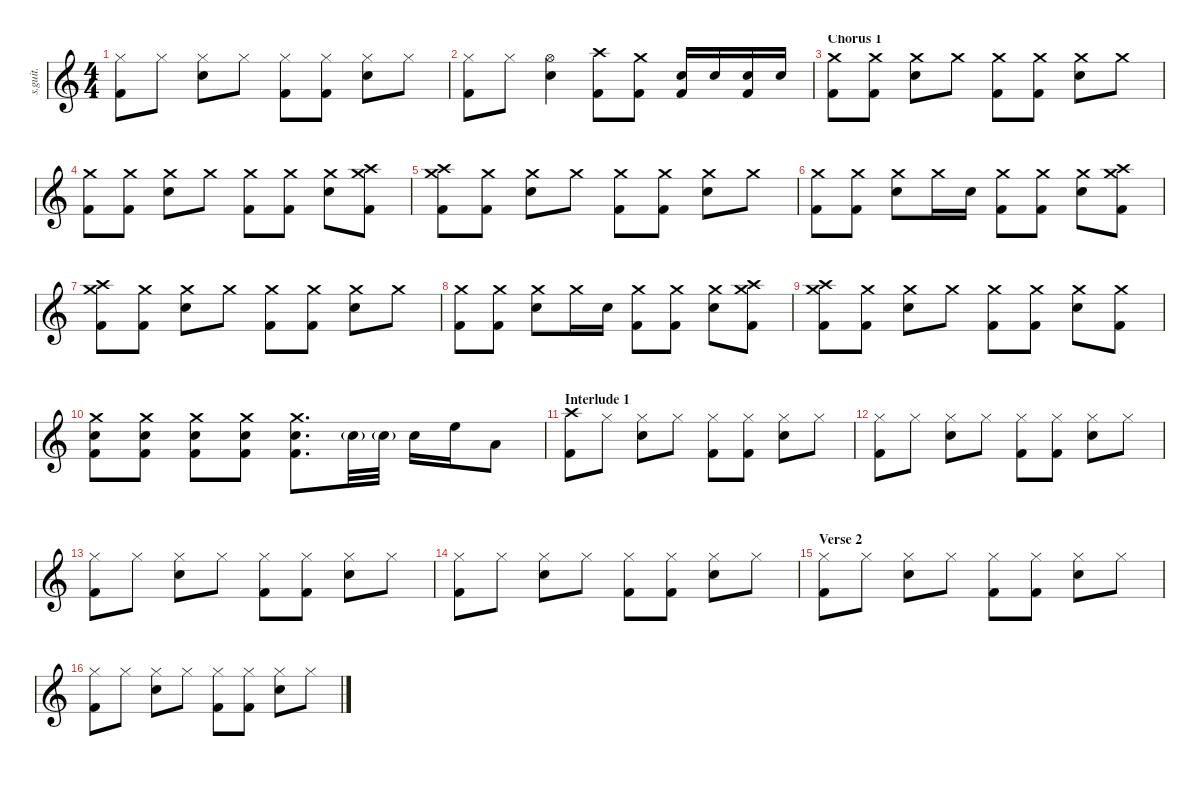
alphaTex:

\defaultSystemsLayout 4
\hideDynamics
\bracketExtendMode nobrackets
\track ("Tre Cool" "s.guit.") {instrument percussion}
\staff {score}
\articulation defaults
\ts (4 4)
\tempo (84 hide)
\clef g2
\ks c
("Hi-Hat (closed)" "Kick (hit) 2").8{lyrics (0 "") lyrics (1 "") lyrics (2 "") lyrics (3 "") lyrics (4 "") dy f} "Hi-Hat (closed)".8{lyrics (0 "") lyrics (1 "") lyrics (2 "") lyrics (3 "") lyrics (4 "")} ("Hi-Hat (closed)" "Snare (hit) 2").8{lyrics (0 "") lyrics (1 "") lyrics (2 "") lyrics (3 "") lyrics (4 "")} "Hi-Hat (closed)".8{lyrics (0 "") lyrics (1 "") lyrics (2 "") lyrics (3 "") lyrics (4 "")} ("Hi-Hat (closed)" "Kick (hit) 2").8{lyrics (0 "") lyrics (1 "") lyrics (2 "") lyrics (3 "") lyrics (4 "")} ("Hi-Hat (closed)" "Kick (hit) 2").8{lyrics (0 "") lyrics (1 "") lyrics (2 "") lyrics (3 "") lyrics (4 "")} ("Hi-Hat (closed)" "Snare (hit) 2").8{lyrics (0 "") lyrics (1 "") lyrics (2 "") lyrics (3 "") lyrics (4 "")} "Hi-Hat (closed)".8{lyrics (0 "") lyrics (1 "") lyrics (2 "") lyrics (3 "") lyrics (4 "")} |
("Hi-Hat (closed)" "Kick (hit) 2").8{lyrics (0 "") lyrics (1 "") lyrics (2 "") lyrics (3 "") lyrics (4 "")} "Hi-Hat (closed)".8{lyrics (0 "") lyrics (1 "") lyrics (2 "") lyrics (3 "") lyrics (4 "")} ("Hi-Hat (open)" "Snare (hit) 2").4{lyrics (0 "") lyrics (1 "") lyrics (2 "") lyrics (3 "") lyrics (4 "")} ("Crash high (hit)" "Kick (hit) 2").8{lyrics (0 "") lyrics (1 "") lyrics (2 "") lyrics (3 "") lyrics (4 "")} ("Crash medium (hit)" "Kick (hit) 2").8{lyrics (0 "") lyrics (1 "") lyrics (2 "") lyrics (3 "") lyrics (4 "")} ("Snare (hit) 2" "Kick (hit) 2").16{lyrics (0 "") lyrics (1 "") lyrics (2 "") lyrics (3 "") lyrics (4 "")} "Snare (hit) 2".16{lyrics (0 "") lyrics (1 "") lyrics (2 "") lyrics (3 "") lyrics (4 "")} ("Snare (hit) 2" "Kick (hit) 2").16{lyrics (0 "") lyrics (1 "") lyrics (2 "") lyrics (3 "") lyrics (4 "")} "Snare (hit) 2".16{lyrics (0 "") lyrics (1 "") lyrics (2 "") lyrics (3 "") lyrics (4 "")} |
\section ("" "Chorus 1")
("Crash medium (hit)" "Kick (hit) 2").8{lyrics (0 "") lyrics (1 "") lyrics (2 "") lyrics (3 "") lyrics (4 "")} ("Crash medium (hit)" "Kick (hit) 2").8{lyrics (0 "") lyrics (1 "") lyrics (2 "") lyrics (3 "") lyrics (4 "")} ("Crash medium (hit)" "Snare (hit) 2").8{lyrics (0 "") lyrics (1 "") lyrics (2 "") lyrics (3 "") lyrics (4 "")} "Crash medium (hit)".8{lyrics (0 "") lyrics (1 "") lyrics (2 "") lyrics (3 "") lyrics (4 "")} ("Crash medium (hit)" "Kick (hit) 2").8{lyrics (0 "") lyrics (1 "") lyrics (2 "") lyrics (3 "") lyrics (4 "")} ("Crash medium (hit)" "Kick (hit) 2").8{lyrics (0 "") lyrics (1 "") lyrics (2 "") lyrics (3 "") lyrics (4 "")} ("Crash medium (hit)" "Snare (hit) 2").8{lyrics (0 "") lyrics (1 "") lyrics (2 "") lyrics (3 "") lyrics (4 "")} "Crash medium (hit)".8{lyrics (0 "") lyrics (1 "") lyrics (2 "") lyrics (3 "") lyrics (4 "")} |
("Crash medium (hit)" "Kick (hit) 2").8{lyrics (0 "") lyrics (1 "") lyrics (2 "") lyrics (3 "") lyrics (4 "")} ("Crash medium (hit)" "Kick (hit) 2").8{lyrics (0 "") lyrics (1 "") lyrics (2 "") lyrics (3 "") lyrics (4 "")} ("Crash medium (hit)" "Snare (hit) 2").8{lyrics (0 "") lyrics (1 "") lyrics (2 "") lyrics (3 "") lyrics (4 "")} "Crash medium (hit)".8{lyrics (0 "") lyrics (1 "") lyrics (2 "") lyrics (3 "") lyrics (4 "")} ("Crash medium (hit)" "Kick (hit) 2").8{lyrics (0 "") lyrics (1 "") lyrics (2 "") lyrics (3 "") lyrics (4 "")} ("Crash medium (hit)" "Kick (hit) 2").8{lyrics (0 "") lyrics (1 "") lyrics (2 "") lyrics (3 "") lyrics (4 "")} ("Crash medium (hit)" "Snare (hit) 2").8{lyrics (0 "") lyrics (1 "") lyrics (2 "") lyrics (3 "") lyrics (4 "")} ("Crash medium (hit)" "Crash high (hit)" "Kick (hit) 2").8{lyrics (0 "") lyrics (1 "") lyrics (2 "") lyrics (3 "") lyrics (4 "")} |
("Crash medium (hit)" "Crash high (hit)" "Kick (hit) 2").8{lyrics (0 "") lyrics (1 "") lyrics (2 "") lyrics (3 "") lyrics (4 "")} ("Crash medium (hit)" "Kick (hit) 2").8{lyrics (0 "") lyrics (1 "") lyrics (2 "") lyrics (3 "") lyrics (4 "")} ("Crash medium (hit)" "Snare (hit) 2").8{lyrics (0 "") lyrics (1 "") lyrics (2 "") lyrics (3 "") lyrics (4 "")} "Crash medium (hit)".8{lyrics (0 "") lyrics (1 "") lyrics (2 "") lyrics (3 "") lyrics (4 "")} ("Crash medium (hit)" "Kick (hit) 2").8{lyrics (0 "") lyrics (1 "") lyrics (2 "") lyrics (3 "") lyrics (4 "")} ("Crash medium (hit)" "Kick (hit) 2").8{lyrics (0 "") lyrics (1 "") lyrics (2 "") lyrics (3 "") lyrics (4 "")} ("Crash medium (hit)" "Snare (hit) 2").8{lyrics (0 "") lyrics (1 "") lyrics (2 "") lyrics (3 "") lyrics (4 "")} "Crash medium (hit)".8{lyrics (0 "") lyrics (1 "") lyrics (2 "") lyrics (3 "") lyrics (4 "")} |
("Crash medium (hit)" "Kick (hit) 2").8{lyrics (0 "") lyrics (1 "") lyrics (2 "") lyrics (3 "") lyrics (4 "")} ("Crash medium (hit)" "Kick (hit) 2").8{lyrics (0 "") lyrics (1 "") lyrics (2 "") lyrics (3 "") lyrics (4 "")} ("Crash medium (hit)" "Snare (hit) 2").8{lyrics (0 "") lyrics (1 "") lyrics (2 "") lyrics (3 "") lyrics (4 "")} "Crash medium (hit)".16{lyrics (0 "") lyrics (1 "") lyrics (2 "") lyrics (3 "") lyrics (4 "")} "Snare (hit) 2".16{lyrics (0 "") lyrics (1 "") lyrics (2 "") lyrics (3 "") lyrics (4 "")} ("Crash medium (hit)" "Kick (hit) 2").8{lyrics (0 "") lyrics (1 "") lyrics (2 "") lyrics (3 "") lyrics (4 "")} ("Crash medium (hit)" "Kick (hit) 2").8{lyrics (0 "") lyrics (1 "") lyrics (2 "") lyrics (3 "") lyrics (4 "")} ("Crash medium (hit)" "Snare (hit) 2").8{lyrics (0 "") lyrics (1 "") lyrics (2 "") lyrics (3 "") lyrics (4 "")} ("Crash medium (hit)" "Crash high (hit)" "Kick (hit) 2").8{lyrics (0 "") lyrics (1 "") lyrics (2 "") lyrics (3 "") lyrics (4 "")} |
("Crash medium (hit)" "Crash high (hit)" "Kick (hit) 2").8{lyrics (0 "") lyrics (1 "") lyrics (2 "") lyrics (3 "") lyrics (4 "")} ("Crash medium (hit)" "Kick (hit) 2").8{lyrics (0 "") lyrics (1 "") lyrics (2 "") lyrics (3 "") lyrics (4 "")} ("Crash medium (hit)" "Snare (hit) 2").8{lyrics (0 "") lyrics (1 "") lyrics (2 "") lyrics (3 "") lyrics (4 "")} "Crash medium (hit)".8{lyrics (0 "") lyrics (1 "") lyrics (2 "") lyrics (3 "") lyrics (4 "")} ("Crash medium (hit)" "Kick (hit) 2").8{lyrics (0 "") lyrics (1 "") lyrics (2 "") lyrics (3 "") lyrics (4 "")} ("Crash medium (hit)" "Kick (hit) 2").8{lyrics (0 "") lyrics (1 "") lyrics (2 "") lyrics (3 "") lyrics (4 "")} ("Crash medium (hit)" "Snare (hit) 2").8{lyrics (0 "") lyrics (1 "") lyrics (2 "") lyrics (3 "") lyrics (4 "")} "Crash medium (hit)".8{lyrics (0 "") lyrics (1 "") lyrics (2 "") lyrics (3 "") lyrics (4 "")} |
("Crash medium (hit)" "Kick (hit) 2").8{lyrics (0 "") lyrics (1 "") lyrics (2 "") lyrics (3 "") lyrics (4 "")} ("Crash medium (hit)" "Kick (hit) 2").8{lyrics (0 "") lyrics (1 "") lyrics (2 "") lyrics (3 "") lyrics (4 "")} ("Crash medium (hit)" "Snare (hit) 2").8{lyrics (0 "") lyrics (1 "") lyrics (2 "") lyrics (3 "") lyrics (4 "")} "Crash medium (hit)".16{lyrics (0 "") lyrics (1 "") lyrics (2 "") lyrics (3 "") lyrics (4 "")} "Snare (hit) 2".16{lyrics (0 "") lyrics (1 "") lyrics (2 "") lyrics (3 "") lyrics (4 "")} ("Crash medium (hit)" "Kick (hit) 2").8{lyrics (0 "") lyrics (1 "") lyrics (2 "") lyrics (3 "") lyrics (4 "")} ("Crash medium (hit)" "Kick (hit) 2").8{lyrics (0 "") lyrics (1 "") lyrics (2 "") lyrics (3 "") lyrics (4 "")} ("Crash medium (hit)" "Snare (hit) 2").8{lyrics (0 "") lyrics (1 "") lyrics (2 "") lyrics (3 "") lyrics (4 "")} ("Crash medium (hit)" "Crash high (hit)" "Kick (hit) 2").8{lyrics (0 "") lyrics (1 "") lyrics (2 "") lyrics (3 "") lyrics (4 "")} |
("Crash medium (hit)" "Crash high (hit)" "Kick (hit) 2").8{lyrics (0 "") lyrics (1 "") lyrics (2 "") lyrics (3 "") lyrics (4 "")} ("Crash medium (hit)" "Kick (hit) 2").8{lyrics (0 "") lyrics (1 "") lyrics (2 "") lyrics (3 "") lyrics (4 "")} ("Crash medium (hit)" "Snare (hit) 2").8{lyrics (0 "") lyrics (1 "") lyrics (2 "") lyrics (3 "") lyrics (4 "")} "Crash medium (hit)".8{lyrics (0 "") lyrics (1 "") lyrics (2 "") lyrics (3 "") lyrics (4 "")} ("Crash medium (hit)" "Kick (hit) 2").8{lyrics (0 "") lyrics (1 "") lyrics (2 "") lyrics (3 "") lyrics (4 "")} ("Crash medium (hit)" "Kick (hit) 2").8{lyrics (0 "") lyrics (1 "") lyrics (2 "") lyrics (3 "") lyrics (4 "")} ("Crash medium (hit)" "Snare (hit) 2").8{lyrics (0 "") lyrics (1 "") lyrics (2 "") lyrics (3 "") lyrics (4 "")} ("Crash medium (hit)" "Kick (hit) 2").8{lyrics (0 "") lyrics (1 "") lyrics (2 "") lyrics (3 "") lyrics (4 "")} |
("Kick (hit) 2" "Snare (hit) 2" "Crash medium (hit)").8{lyrics (0 "") lyrics (1 "") lyrics (2 "") lyrics (3 "") lyrics (4 "")} ("Kick (hit) 2" "Crash medium (hit)" "Snare (hit) 2").8{lyrics (0 "") lyrics (1 "") lyrics (2 "") lyrics (3 "") lyrics (4 "")} ("Snare (hit) 2" "Kick (hit) 2" "Crash medium (hit)").8{lyrics (0 "") lyrics (1 "") lyrics (2 "") lyrics (3 "") lyrics (4 "")} ("Snare (hit) 2" "Kick (hit) 2" "Crash medium (hit)").8{lyrics (0 "") lyrics (1 "") lyrics (2 "") lyrics (3 "") lyrics (4 "")} ("Snare (hit) 2" "Kick (hit) 2" "Crash medium (hit)").8{d lyrics (0 "") lyrics (1 "") lyrics (2 "") lyrics (3 "") lyrics (4 "")} "Snare (hit) 2"{g}.32{lyrics (0 "") lyrics (1 "") lyrics (2 "") lyrics (3 "") lyrics (4 "")} "Snare (hit) 2"{g}.32{lyrics (0 "") lyrics (1 "") lyrics (2 "") lyrics (3 "") lyrics (4 "")} "Snare (hit) 2".16{lyrics (0 "") lyrics (1 "") lyrics (2 "") lyrics (3 "") lyrics (4 "")} "High Floor Tom (hit)".16{lyrics (0 "") lyrics (1 "") lyrics (2 "") lyrics (3 "") lyrics (4 "")} "Low Tom (hit)".8{lyrics (0 "") lyrics (1 "") lyrics (2 "") lyrics (3 "") lyrics (4 "")} |
\section ("" "Interlude 1")
("Crash high (hit)" "Kick (hit) 2").8{lyrics (0 "") lyrics (1 "") lyrics (2 "") lyrics (3 "") lyrics (4 "")} "Hi-Hat (closed)".8{lyrics (0 "") lyrics (1 "") lyrics (2 "") lyrics (3 "") lyrics (4 "")} ("Hi-Hat (closed)" "Snare (hit) 2").8{lyrics (0 "") lyrics (1 "") lyrics (2 "") lyrics (3 "") lyrics (4 "")} "Hi-Hat (closed)".8{lyrics (0 "") lyrics (1 "") lyrics (2 "") lyrics (3 "") lyrics (4 "")} ("Hi-Hat (closed)" "Kick (hit) 2").8{lyrics (0 "") lyrics (1 "") lyrics (2 "") lyrics (3 "") lyrics (4 "")} ("Hi-Hat (closed)" "Kick (hit) 2").8{lyrics (0 "") lyrics (1 "") lyrics (2 "") lyrics (3 "") lyrics (4 "")} ("Hi-Hat (closed)" "Snare (hit) 2").8{lyrics (0 "") lyrics (1 "") lyrics (2 "") lyrics (3 "") lyrics (4 "")} "Hi-Hat (closed)".8{lyrics (0 "") lyrics (1 "") lyrics (2 "") lyrics (3 "") lyrics (4 "")} |
("Hi-Hat (closed)" "Kick (hit) 2").8{lyrics (0 "") lyrics (1 "") lyrics (2 "") lyrics (3 "") lyrics (4 "")} "Hi-Hat (closed)".8{lyrics (0 "") lyrics (1 "") lyrics (2 "") lyrics (3 "") lyrics (4 "")} ("Hi-Hat (closed)" "Snare (hit) 2").8{lyrics (0 "") lyrics (1 "") lyrics (2 "") lyrics (3 "") lyrics (4 "")} "Hi-Hat (closed)".8{lyrics (0 "") lyrics (1 "") lyrics (2 "") lyrics (3 "") lyrics (4 "")} ("Hi-Hat (closed)" "Kick (hit) 2").8{lyrics (0 "") lyrics (1 "") lyrics (2 "") lyrics (3 "") lyrics (4 "")} ("Hi-Hat (closed)" "Kick (hit) 2").8{lyrics (0 "") lyrics (1 "") lyrics (2 "") lyrics (3 "") lyrics (4 "")} ("Hi-Hat (closed)" "Snare (hit) 2").8{lyrics (0 "") lyrics (1 "") lyrics (2 "") lyrics (3 "") lyrics (4 "")} "Hi-Hat (closed)".8{lyrics (0 "") lyrics (1 "") lyrics (2 "") lyrics (3 "") lyrics (4 "")} |
("Hi-Hat (closed)" "Kick (hit) 2").8{lyrics (0 "") lyrics (1 "") lyrics (2 "") lyrics (3 "") lyrics (4 "")} "Hi-Hat (closed)".8{lyrics (0 "") lyrics (1 "") lyrics (2 "") lyrics (3 "") lyrics (4 "")} ("Hi-Hat (closed)" "Snare (hit) 2").8{lyrics (0 "") lyrics (1 "") lyrics (2 "") lyrics (3 "") lyrics (4 "")} "Hi-Hat (closed)".8{lyrics (0 "") lyrics (1 "") lyrics (2 "") lyrics (3 "") lyrics (4 "")} ("Hi-Hat (closed)" "Kick (hit) 2").8{lyrics (0 "") lyrics (1 "") lyrics (2 "") lyrics (3 "") lyrics (4 "")} ("Hi-Hat (closed)" "Kick (hit) 2").8{lyrics (0 "") lyrics (1 "") lyrics (2 "") lyrics (3 "") lyrics (4 "")} ("Hi-Hat (closed)" "Snare (hit) 2").8{lyrics (0 "") lyrics (1 "") lyrics (2 "") lyrics (3 "") lyrics (4 "")} "Hi-Hat (closed)".8{lyrics (0 "") lyrics (1 "") lyrics (2 "") lyrics (3 "") lyrics (4 "")} |
("Hi-Hat (closed)" "Kick (hit) 2").8{lyrics (0 "") lyrics (1 "") lyrics (2 "") lyrics (3 "") lyrics (4 "")} "Hi-Hat (closed)".8{lyrics (0 "") lyrics (1 "") lyrics (2 "") lyrics (3 "") lyrics (4 "")} ("Hi-Hat (closed)" "Snare (hit) 2").8{lyrics (0 "") lyrics (1 "") lyrics (2 "") lyrics (3 "") lyrics (4 "")} "Hi-Hat (closed)".8{lyrics (0 "") lyrics (1 "") lyrics (2 "") lyrics (3 "") lyrics (4 "")} ("Hi-Hat (closed)" "Kick (hit) 2").8{lyrics (0 "") lyrics (1 "") lyrics (2 "") lyrics (3 "") lyrics (4 "")} ("Hi-Hat (closed)" "Kick (hit) 2").8{lyrics (0 "") lyrics (1 "") lyrics (2 "") lyrics (3 "") lyrics (4 "")} ("Hi-Hat (closed)" "Snare (hit) 2").8{lyrics (0 "") lyrics (1 "") lyrics (2 "") lyrics (3 "") lyrics (4 "")} "Hi-Hat (closed)".8{lyrics (0 "") lyrics (1 "") lyrics (2 "") lyrics (3 "") lyrics (4 "")} |
\section ("" "Verse 2")
("Hi-Hat (closed)" "Kick (hit) 2").8{lyrics (0 "") lyrics (1 "") lyrics (2 "") lyrics (3 "") lyrics (4 "")} "Hi-Hat (closed)".8{lyrics (0 "") lyrics (1 "") lyrics (2 "") lyrics (3 "") lyrics (4 "")} ("Hi-Hat (closed)" "Snare (hit) 2").8{lyrics (0 "") lyrics (1 "") lyrics (2 "") lyrics (3 "") lyrics (4 "")} "Hi-Hat (closed)".8{lyrics (0 "") lyrics (1 "") lyrics (2 "") lyrics (3 "") lyrics (4 "")} ("Hi-Hat (closed)" "Kick (hit) 2").8{lyrics (0 "") lyrics (1 "") lyrics (2 "") lyrics (3 "") lyrics (4 "")} ("Hi-Hat (closed)" "Kick (hit) 2").8{lyrics (0 "") lyrics (1 "") lyrics (2 "") lyrics (3 "") lyrics (4 "")} ("Hi-Hat (closed)" "Snare (hit) 2").8{lyrics (0 "") lyrics (1 "") lyrics (2 "") lyrics (3 "") lyrics (4 "")} "Hi-Hat (closed)".8{lyrics (0 "") lyrics (1 "") lyrics (2 "") lyrics (3 "") lyrics (4 "")} |
("Hi-Hat (closed)" "Kick (hit) 2").8{lyrics (0 "") lyrics (1 "") lyrics (2 "") lyrics (3 "") lyrics (4 "")} "Hi-Hat (closed)".8{lyrics (0 "") lyrics (1 "") lyrics (2 "") lyrics (3 "") lyrics (4 "")} ("Hi-Hat (closed)" "Snare (hit) 2").8{lyrics (0 "") lyrics (1 "") lyrics (2 "") lyrics (3 "") lyrics (4 "")} "Hi-Hat (closed)".8{lyrics (0 "") lyrics (1 "") lyrics (2 "") lyrics (3 "") lyrics (4 "")} ("Hi-Hat (closed)" "Kick (hit) 2").8{lyrics (0 "") lyrics (1 "") lyrics (2 "") lyrics (3 "") lyrics (4 "")} ("Hi-Hat (closed)" "Kick (hit) 2").8{lyrics (0 "") lyrics (1 "") lyrics (2 "") lyrics (3 "") lyrics (4 "")} ("Hi-Hat (closed)" "Snare (hit) 2").8{lyrics (0 "") lyrics (1 "") lyrics (2 "") lyrics (3 "") lyrics (4 "")} "Hi-Hat (closed)".8{lyrics (0 "") lyrics (1 "") lyrics (2 "") lyrics (3 "") lyrics (4 "")}
